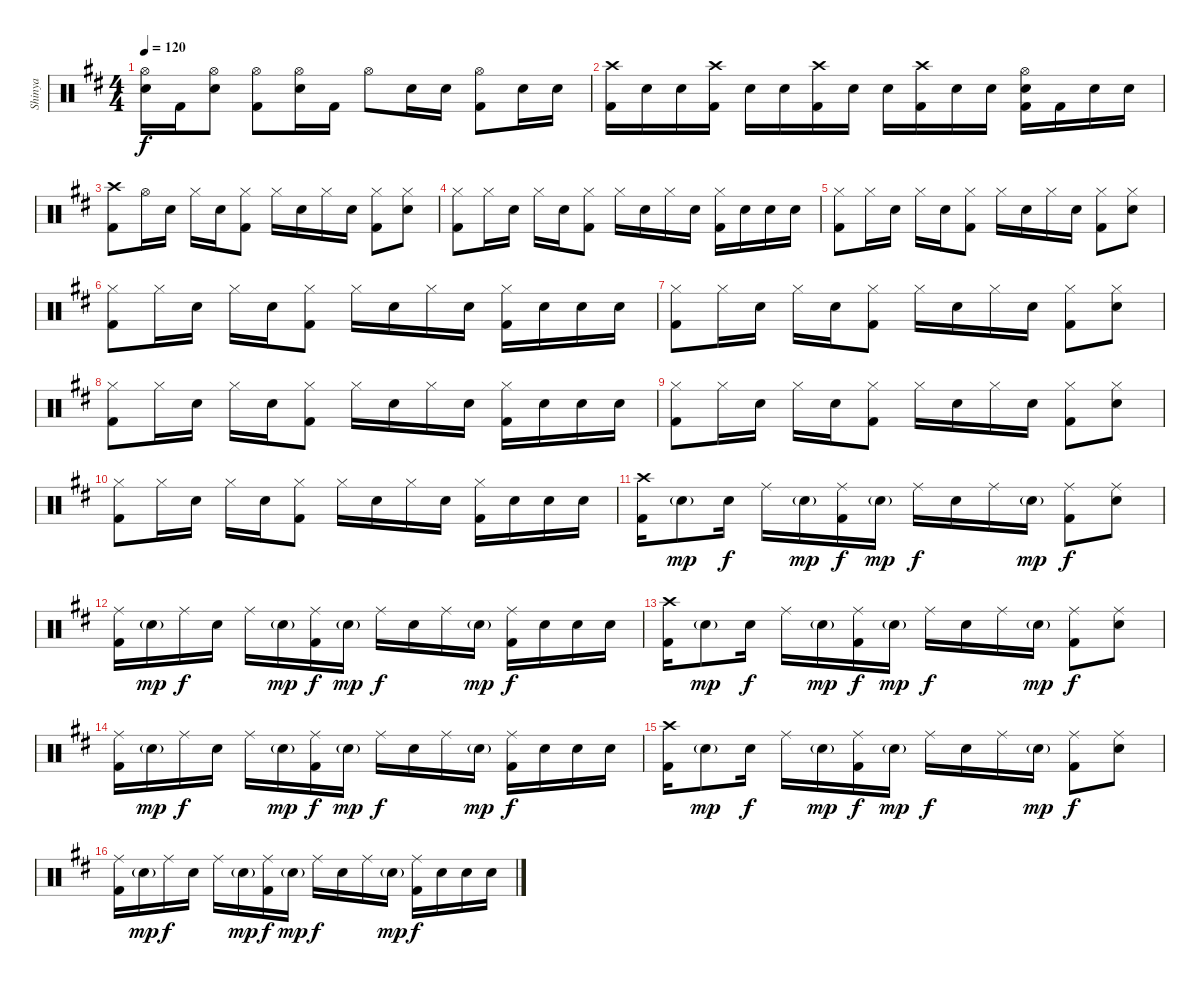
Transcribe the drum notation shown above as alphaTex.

\track ("Shinya" "Shinya") {instrument percussion}
\staff {score}
\articulation defaults
\ts (4 4)
\tempo 120
\clef neutral
\ks bminor
("Hi-Hat (open)" "Snare (hit) 2").16{dy f} "Kick (hit) 2".16 ("Hi-Hat (open)" "Snare (hit) 2").8 ("Hi-Hat (open)" "Kick (hit) 2").8 ("Hi-Hat (open)" "Snare (hit) 2").16 "Kick (hit) 2".16 "Hi-Hat (open)".8 "Snare (hit) 2".16 "Snare (hit) 2".16 ("Hi-Hat (open)" "Kick (hit) 2").8 "Snare (hit) 2".16 "Snare (hit) 2".16 |
("Crash high (hit)" "Kick (hit) 2").16 "Snare (hit) 2".16 "Snare (hit) 2".16 ("Crash high (hit)" "Kick (hit) 2").16 "Snare (hit) 2".16 "Snare (hit) 2".16 ("Crash high (hit)" "Kick (hit) 2").16 "Snare (hit) 2".16 "Snare (hit) 2".16 ("Crash high (hit)" "Kick (hit) 2").16 "Snare (hit) 2".16 "Snare (hit) 2".16 ("Hi-Hat (open)" "Snare (hit) 2" "Kick (hit) 2").16 "Kick (hit) 2".16 "Snare (hit) 2".16 "Snare (hit) 2".16 |
("Crash high (hit)" "Kick (hit) 2").8 "Hi-Hat (open)".16 "Snare (hit) 2".16 "Hi-Hat (closed)".16 "Snare (hit) 2".16 ("Hi-Hat (closed)" "Kick (hit) 2").8 "Hi-Hat (closed)".16 "Snare (hit) 2".16 "Hi-Hat (closed)".16 "Snare (hit) 2".16 ("Hi-Hat (closed)" "Kick (hit) 2").8 ("Hi-Hat (closed)" "Snare (hit) 2").8 |
("Hi-Hat (closed)" "Kick (hit) 2").8 "Hi-Hat (closed)".16 "Snare (hit) 2".16 "Hi-Hat (closed)".16 "Snare (hit) 2".16 ("Hi-Hat (closed)" "Kick (hit) 2").8 "Hi-Hat (closed)".16 "Snare (hit) 2".16 "Hi-Hat (closed)".16 "Snare (hit) 2".16 ("Hi-Hat (closed)" "Kick (hit) 2").16 "Snare (hit) 2".16 "Snare (hit) 2".16 "Snare (hit) 2".16 |
("Hi-Hat (closed)" "Kick (hit) 2").8 "Hi-Hat (closed)".16 "Snare (hit) 2".16 "Hi-Hat (closed)".16 "Snare (hit) 2".16 ("Hi-Hat (closed)" "Kick (hit) 2").8 "Hi-Hat (closed)".16 "Snare (hit) 2".16 "Hi-Hat (closed)".16 "Snare (hit) 2".16 ("Hi-Hat (closed)" "Kick (hit) 2").8 ("Hi-Hat (closed)" "Snare (hit) 2").8 |
("Hi-Hat (closed)" "Kick (hit) 2").8 "Hi-Hat (closed)".16 "Snare (hit) 2".16 "Hi-Hat (closed)".16 "Snare (hit) 2".16 ("Hi-Hat (closed)" "Kick (hit) 2").8 "Hi-Hat (closed)".16 "Snare (hit) 2".16 "Hi-Hat (closed)".16 "Snare (hit) 2".16 ("Hi-Hat (closed)" "Kick (hit) 2").16 "Snare (hit) 2".16 "Snare (hit) 2".16 "Snare (hit) 2".16 |
("Hi-Hat (closed)" "Kick (hit) 2").8 "Hi-Hat (closed)".16 "Snare (hit) 2".16 "Hi-Hat (closed)".16 "Snare (hit) 2".16 ("Hi-Hat (closed)" "Kick (hit) 2").8 "Hi-Hat (closed)".16 "Snare (hit) 2".16 "Hi-Hat (closed)".16 "Snare (hit) 2".16 ("Hi-Hat (closed)" "Kick (hit) 2").8 ("Hi-Hat (closed)" "Snare (hit) 2").8 |
("Hi-Hat (closed)" "Kick (hit) 2").8 "Hi-Hat (closed)".16 "Snare (hit) 2".16 "Hi-Hat (closed)".16 "Snare (hit) 2".16 ("Hi-Hat (closed)" "Kick (hit) 2").8 "Hi-Hat (closed)".16 "Snare (hit) 2".16 "Hi-Hat (closed)".16 "Snare (hit) 2".16 ("Hi-Hat (closed)" "Kick (hit) 2").16 "Snare (hit) 2".16 "Snare (hit) 2".16 "Snare (hit) 2".16 |
("Hi-Hat (closed)" "Kick (hit) 2").8 "Hi-Hat (closed)".16 "Snare (hit) 2".16 "Hi-Hat (closed)".16 "Snare (hit) 2".16 ("Hi-Hat (closed)" "Kick (hit) 2").8 "Hi-Hat (closed)".16 "Snare (hit) 2".16 "Hi-Hat (closed)".16 "Snare (hit) 2".16 ("Hi-Hat (closed)" "Kick (hit) 2").8 ("Hi-Hat (closed)" "Snare (hit) 2").8 |
("Hi-Hat (closed)" "Kick (hit) 2").8 "Hi-Hat (closed)".16 "Snare (hit) 2".16 "Hi-Hat (closed)".16 "Snare (hit) 2".16 ("Hi-Hat (closed)" "Kick (hit) 2").8 "Hi-Hat (closed)".16 "Snare (hit) 2".16 "Hi-Hat (closed)".16 "Snare (hit) 2".16 ("Hi-Hat (closed)" "Kick (hit) 2").16 "Snare (hit) 2".16 "Snare (hit) 2".16 "Snare (hit) 2".16 |
("Crash high (hit)" "Kick (hit) 2").16 "Snare (hit) 2"{g}.8{dy mp} "Snare (hit) 2".16{dy f} "Ride (middle)".16 "Snare (hit) 2"{g}.16{dy mp} ("Ride (middle)" "Kick (hit) 2").16{dy f} "Snare (hit) 2"{g}.16{dy mp} "Ride (middle)".16{dy f} "Snare (hit) 2".16 "Ride (middle)".16 "Snare (hit) 2"{g}.16{dy mp} ("Ride (middle)" "Kick (hit) 2").8{dy f} ("Ride (middle)" "Snare (hit) 2").8 |
("Ride (middle)" "Kick (hit) 2").16 "Snare (hit) 2"{g}.16{dy mp} "Ride (middle)".16{dy f} "Snare (hit) 2".16 "Ride (middle)".16 "Snare (hit) 2"{g}.16{dy mp} ("Ride (middle)" "Kick (hit) 2").16{dy f} "Snare (hit) 2"{g}.16{dy mp} "Ride (middle)".16{dy f} "Snare (hit) 2".16 "Ride (middle)".16 "Snare (hit) 2"{g}.16{dy mp} ("Ride (middle)" "Kick (hit) 2").16{dy f} "Snare (hit) 2".16 "Snare (hit) 2".16 "Snare (hit) 2".16 |
("Crash high (hit)" "Kick (hit) 2").16 "Snare (hit) 2"{g}.8{dy mp} "Snare (hit) 2".16{dy f} "Ride (middle)".16 "Snare (hit) 2"{g}.16{dy mp} ("Ride (middle)" "Kick (hit) 2").16{dy f} "Snare (hit) 2"{g}.16{dy mp} "Ride (middle)".16{dy f} "Snare (hit) 2".16 "Ride (middle)".16 "Snare (hit) 2"{g}.16{dy mp} ("Ride (middle)" "Kick (hit) 2").8{dy f} ("Ride (middle)" "Snare (hit) 2").8 |
("Ride (middle)" "Kick (hit) 2").16 "Snare (hit) 2"{g}.16{dy mp} "Ride (middle)".16{dy f} "Snare (hit) 2".16 "Ride (middle)".16 "Snare (hit) 2"{g}.16{dy mp} ("Ride (middle)" "Kick (hit) 2").16{dy f} "Snare (hit) 2"{g}.16{dy mp} "Ride (middle)".16{dy f} "Snare (hit) 2".16 "Ride (middle)".16 "Snare (hit) 2"{g}.16{dy mp} ("Ride (middle)" "Kick (hit) 2").16{dy f} "Snare (hit) 2".16 "Snare (hit) 2".16 "Snare (hit) 2".16 |
("Crash high (hit)" "Kick (hit) 2").16 "Snare (hit) 2"{g}.8{dy mp} "Snare (hit) 2".16{dy f} "Ride (middle)".16 "Snare (hit) 2"{g}.16{dy mp} ("Ride (middle)" "Kick (hit) 2").16{dy f} "Snare (hit) 2"{g}.16{dy mp} "Ride (middle)".16{dy f} "Snare (hit) 2".16 "Ride (middle)".16 "Snare (hit) 2"{g}.16{dy mp} ("Ride (middle)" "Kick (hit) 2").8{dy f} ("Ride (middle)" "Snare (hit) 2").8 |
("Ride (middle)" "Kick (hit) 2").16 "Snare (hit) 2"{g}.16{dy mp} "Ride (middle)".16{dy f} "Snare (hit) 2".16 "Ride (middle)".16 "Snare (hit) 2"{g}.16{dy mp} ("Ride (middle)" "Kick (hit) 2").16{dy f} "Snare (hit) 2"{g}.16{dy mp} "Ride (middle)".16{dy f} "Snare (hit) 2".16 "Ride (middle)".16 "Snare (hit) 2"{g}.16{dy mp} ("Ride (middle)" "Kick (hit) 2").16{dy f} "Snare (hit) 2".16 "Snare (hit) 2".16 "Snare (hit) 2".16
